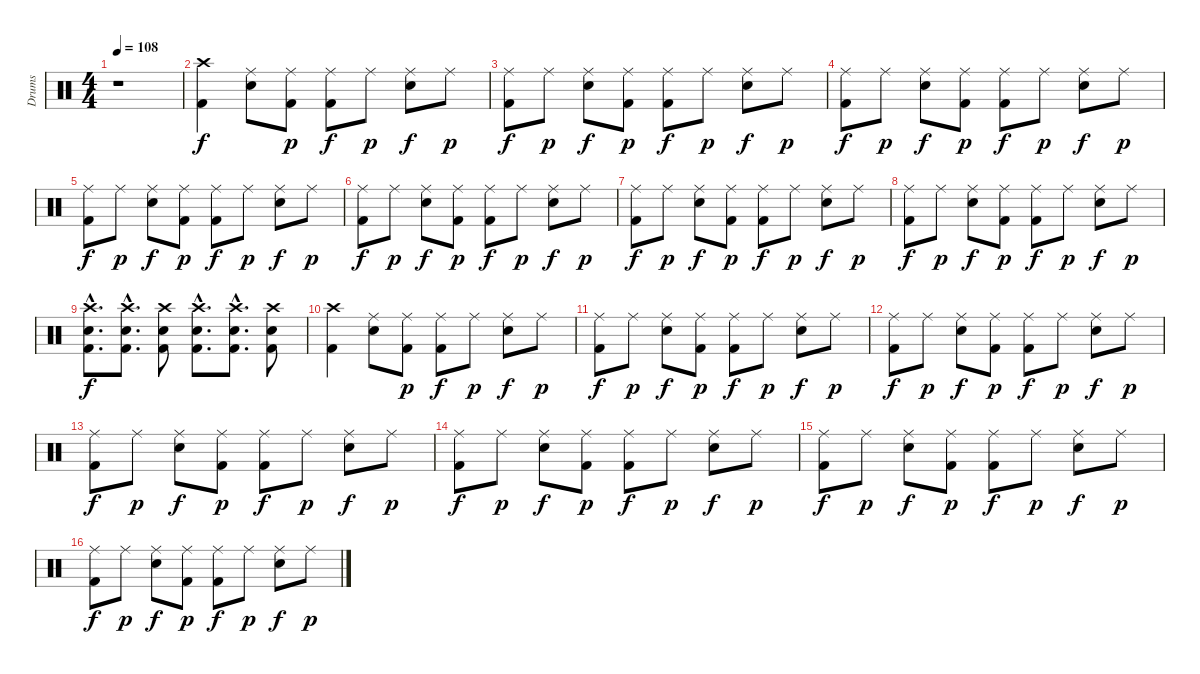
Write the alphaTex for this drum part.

\track ("Drums" "Drums") {instrument percussion}
\staff {score}
\articulation defaults
\ts (4 4)
\tempo 108
\clef neutral
\ks c
r.1{dy f} |
("Crash high (hit)" "Kick (hit) 2").4 ("Ride (middle)" "Electric Snare (hit)").8 ("Ride (middle)" "Kick (hit) 2").8{dy p} ("Ride (middle)" "Kick (hit) 2").8{dy f} "Ride (middle)".8{dy p} ("Ride (middle)" "Electric Snare (hit)").8{dy f} "Ride (middle)".8{dy p} |
("Ride (middle)" "Kick (hit) 2").8{dy f} "Ride (middle)".8{dy p} ("Ride (middle)" "Electric Snare (hit)").8{dy f} ("Ride (middle)" "Kick (hit) 2").8{dy p} ("Ride (middle)" "Kick (hit) 2").8{dy f} "Ride (middle)".8{dy p} ("Ride (middle)" "Electric Snare (hit)").8{dy f} "Ride (middle)".8{dy p} |
("Ride (middle)" "Kick (hit) 2").8{dy f} "Ride (middle)".8{dy p} ("Ride (middle)" "Electric Snare (hit)").8{dy f} ("Ride (middle)" "Kick (hit) 2").8{dy p} ("Ride (middle)" "Kick (hit) 2").8{dy f} "Ride (middle)".8{dy p} ("Ride (middle)" "Electric Snare (hit)").8{dy f} "Ride (middle)".8{dy p} |
("Ride (middle)" "Kick (hit) 2").8{dy f} "Ride (middle)".8{dy p} ("Ride (middle)" "Electric Snare (hit)").8{dy f} ("Ride (middle)" "Kick (hit) 2").8{dy p} ("Ride (middle)" "Kick (hit) 2").8{dy f} "Ride (middle)".8{dy p} ("Ride (middle)" "Electric Snare (hit)").8{dy f} "Ride (middle)".8{dy p} |
("Ride (middle)" "Kick (hit) 2").8{dy f} "Ride (middle)".8{dy p} ("Ride (middle)" "Electric Snare (hit)").8{dy f} ("Ride (middle)" "Kick (hit) 2").8{dy p} ("Ride (middle)" "Kick (hit) 2").8{dy f} "Ride (middle)".8{dy p} ("Ride (middle)" "Electric Snare (hit)").8{dy f} "Ride (middle)".8{dy p} |
("Ride (middle)" "Kick (hit) 2").8{dy f} "Ride (middle)".8{dy p} ("Ride (middle)" "Electric Snare (hit)").8{dy f} ("Ride (middle)" "Kick (hit) 2").8{dy p} ("Ride (middle)" "Kick (hit) 2").8{dy f} "Ride (middle)".8{dy p} ("Ride (middle)" "Electric Snare (hit)").8{dy f} "Ride (middle)".8{dy p} |
("Ride (middle)" "Kick (hit) 2").8{dy f} "Ride (middle)".8{dy p} ("Ride (middle)" "Electric Snare (hit)").8{dy f} ("Ride (middle)" "Kick (hit) 2").8{dy p} ("Ride (middle)" "Kick (hit) 2").8{dy f} "Ride (middle)".8{dy p} ("Ride (middle)" "Electric Snare (hit)").8{dy f} "Ride (middle)".8{dy p} |
("Crash high (hit)"{hac} "Electric Snare (hit)"{hac} "Kick (hit) 2"{hac}).8{d dy f} ("Crash high (hit)"{hac} "Electric Snare (hit)"{hac} "Kick (hit) 2"{hac}).8{d} ("Crash high (hit)" "Electric Snare (hit)" "Kick (hit) 2").8 ("Crash high (hit)"{hac} "Electric Snare (hit)"{hac} "Kick (hit) 2"{hac}).8{d} ("Crash high (hit)"{hac} "Electric Snare (hit)"{hac} "Kick (hit) 2"{hac}).8{d} ("Crash high (hit)" "Electric Snare (hit)" "Kick (hit) 2").8 |
("Crash high (hit)" "Kick (hit) 2").4 ("Ride (middle)" "Electric Snare (hit)").8 ("Ride (middle)" "Kick (hit) 2").8{dy p} ("Ride (middle)" "Kick (hit) 2").8{dy f} "Ride (middle)".8{dy p} ("Ride (middle)" "Electric Snare (hit)").8{dy f} "Ride (middle)".8{dy p} |
("Ride (middle)" "Kick (hit) 2").8{dy f} "Ride (middle)".8{dy p} ("Ride (middle)" "Electric Snare (hit)").8{dy f} ("Ride (middle)" "Kick (hit) 2").8{dy p} ("Ride (middle)" "Kick (hit) 2").8{dy f} "Ride (middle)".8{dy p} ("Ride (middle)" "Electric Snare (hit)").8{dy f} "Ride (middle)".8{dy p} |
("Ride (middle)" "Kick (hit) 2").8{dy f} "Ride (middle)".8{dy p} ("Ride (middle)" "Electric Snare (hit)").8{dy f} ("Ride (middle)" "Kick (hit) 2").8{dy p} ("Ride (middle)" "Kick (hit) 2").8{dy f} "Ride (middle)".8{dy p} ("Ride (middle)" "Electric Snare (hit)").8{dy f} "Ride (middle)".8{dy p} |
("Ride (middle)" "Kick (hit) 2").8{dy f} "Ride (middle)".8{dy p} ("Ride (middle)" "Electric Snare (hit)").8{dy f} ("Ride (middle)" "Kick (hit) 2").8{dy p} ("Ride (middle)" "Kick (hit) 2").8{dy f} "Ride (middle)".8{dy p} ("Ride (middle)" "Electric Snare (hit)").8{dy f} "Ride (middle)".8{dy p} |
("Ride (middle)" "Kick (hit) 2").8{dy f} "Ride (middle)".8{dy p} ("Ride (middle)" "Electric Snare (hit)").8{dy f} ("Ride (middle)" "Kick (hit) 2").8{dy p} ("Ride (middle)" "Kick (hit) 2").8{dy f} "Ride (middle)".8{dy p} ("Ride (middle)" "Electric Snare (hit)").8{dy f} "Ride (middle)".8{dy p} |
("Ride (middle)" "Kick (hit) 2").8{dy f} "Ride (middle)".8{dy p} ("Ride (middle)" "Electric Snare (hit)").8{dy f} ("Ride (middle)" "Kick (hit) 2").8{dy p} ("Ride (middle)" "Kick (hit) 2").8{dy f} "Ride (middle)".8{dy p} ("Ride (middle)" "Electric Snare (hit)").8{dy f} "Ride (middle)".8{dy p} |
("Ride (middle)" "Kick (hit) 2").8{dy f} "Ride (middle)".8{dy p} ("Ride (middle)" "Electric Snare (hit)").8{dy f} ("Ride (middle)" "Kick (hit) 2").8{dy p} ("Ride (middle)" "Kick (hit) 2").8{dy f} "Ride (middle)".8{dy p} ("Ride (middle)" "Electric Snare (hit)").8{dy f} "Ride (middle)".8{dy p}
